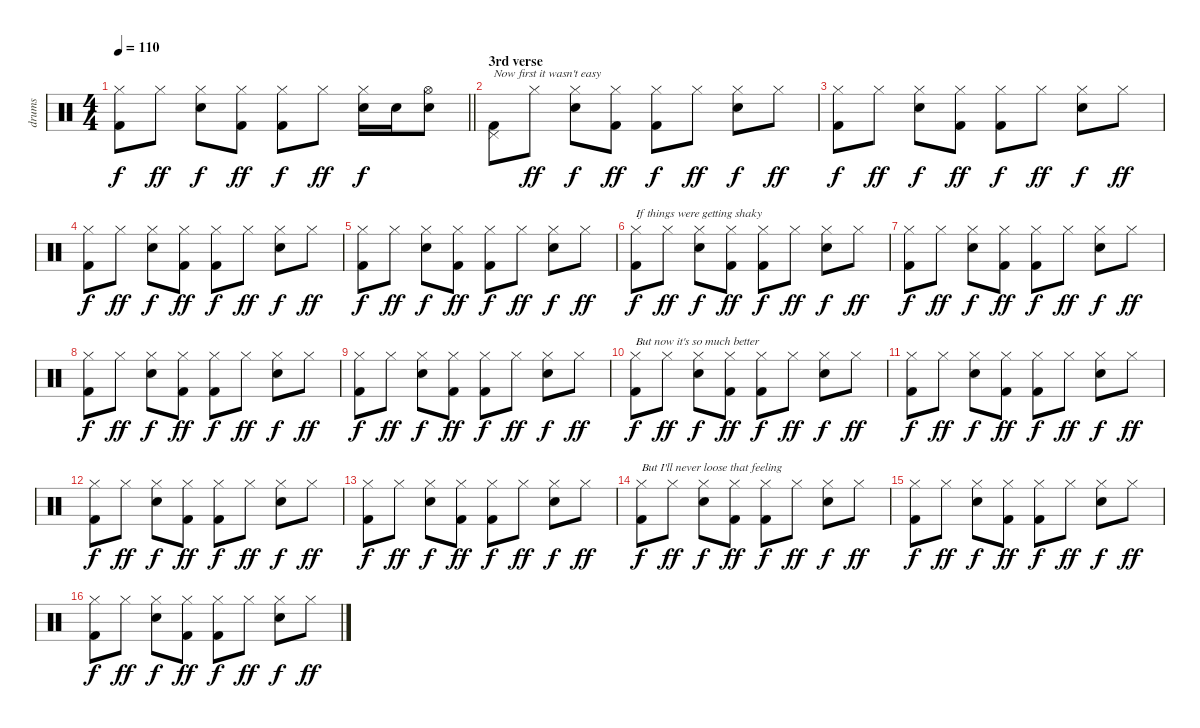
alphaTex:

\track ("drums" "drums") {instrument percussion}
\staff {score}
\articulation defaults
\ts (4 4)
\tempo 110
\clef neutral
\barLineRight lightlight
\ks aminor
("Hi-Hat (closed)" "Kick (hit) 2").8{dy f} "Hi-Hat (closed)".8{dy ff} ("Hi-Hat (closed)" "Snare (hit) 2").8{dy f} ("Hi-Hat (closed)" "Kick (hit) 2").8{dy ff} ("Hi-Hat (closed)" "Kick (hit) 2").8{dy f} "Hi-Hat (closed)".8{dy ff} ("Hi-Hat (closed)" "Snare (hit) 2").16{dy f} "Snare (hit) 2".16 ("Hi-Hat (open)" "Snare (hit) 2").8 |
\section ("" "3rd verse")
("Pedal Hi-Hat (hit)" "Kick (hit) 2").8{txt "Now first it wasn't easy"} "Hi-Hat (closed)".8{dy ff} ("Hi-Hat (closed)" "Snare (hit) 2").8{dy f} ("Hi-Hat (closed)" "Kick (hit) 2").8{dy ff} ("Hi-Hat (closed)" "Kick (hit) 2").8{dy f} "Hi-Hat (closed)".8{dy ff} ("Hi-Hat (closed)" "Snare (hit) 2").8{dy f} "Hi-Hat (closed)".8{dy ff} |
("Hi-Hat (closed)" "Kick (hit) 2").8{dy f} "Hi-Hat (closed)".8{dy ff} ("Hi-Hat (closed)" "Snare (hit) 2").8{dy f} ("Hi-Hat (closed)" "Kick (hit) 2").8{dy ff} ("Hi-Hat (closed)" "Kick (hit) 2").8{dy f} "Hi-Hat (closed)".8{dy ff} ("Hi-Hat (closed)" "Snare (hit) 2").8{dy f} "Hi-Hat (closed)".8{dy ff} |
("Hi-Hat (closed)" "Kick (hit) 2").8{dy f} "Hi-Hat (closed)".8{dy ff} ("Hi-Hat (closed)" "Snare (hit) 2").8{dy f} ("Hi-Hat (closed)" "Kick (hit) 2").8{dy ff} ("Hi-Hat (closed)" "Kick (hit) 2").8{dy f} "Hi-Hat (closed)".8{dy ff} ("Hi-Hat (closed)" "Snare (hit) 2").8{dy f} "Hi-Hat (closed)".8{dy ff} |
("Hi-Hat (closed)" "Kick (hit) 2").8{dy f} "Hi-Hat (closed)".8{dy ff} ("Hi-Hat (closed)" "Snare (hit) 2").8{dy f} ("Hi-Hat (closed)" "Kick (hit) 2").8{dy ff} ("Hi-Hat (closed)" "Kick (hit) 2").8{dy f} "Hi-Hat (closed)".8{dy ff} ("Hi-Hat (closed)" "Snare (hit) 2").8{dy f} "Hi-Hat (closed)".8{dy ff} |
("Hi-Hat (closed)" "Kick (hit) 2").8{txt "If things were getting shaky" dy f} "Hi-Hat (closed)".8{dy ff} ("Hi-Hat (closed)" "Snare (hit) 2").8{dy f} ("Hi-Hat (closed)" "Kick (hit) 2").8{dy ff} ("Hi-Hat (closed)" "Kick (hit) 2").8{dy f} "Hi-Hat (closed)".8{dy ff} ("Hi-Hat (closed)" "Snare (hit) 2").8{dy f} "Hi-Hat (closed)".8{dy ff} |
("Hi-Hat (closed)" "Kick (hit) 2").8{dy f} "Hi-Hat (closed)".8{dy ff} ("Hi-Hat (closed)" "Snare (hit) 2").8{dy f} ("Hi-Hat (closed)" "Kick (hit) 2").8{dy ff} ("Hi-Hat (closed)" "Kick (hit) 2").8{dy f} "Hi-Hat (closed)".8{dy ff} ("Hi-Hat (closed)" "Snare (hit) 2").8{dy f} "Hi-Hat (closed)".8{dy ff} |
("Hi-Hat (closed)" "Kick (hit) 2").8{dy f} "Hi-Hat (closed)".8{dy ff} ("Hi-Hat (closed)" "Snare (hit) 2").8{dy f} ("Hi-Hat (closed)" "Kick (hit) 2").8{dy ff} ("Hi-Hat (closed)" "Kick (hit) 2").8{dy f} "Hi-Hat (closed)".8{dy ff} ("Hi-Hat (closed)" "Snare (hit) 2").8{dy f} "Hi-Hat (closed)".8{dy ff} |
("Hi-Hat (closed)" "Kick (hit) 2").8{dy f} "Hi-Hat (closed)".8{dy ff} ("Hi-Hat (closed)" "Snare (hit) 2").8{dy f} ("Hi-Hat (closed)" "Kick (hit) 2").8{dy ff} ("Hi-Hat (closed)" "Kick (hit) 2").8{dy f} "Hi-Hat (closed)".8{dy ff} ("Hi-Hat (closed)" "Snare (hit) 2").8{dy f} "Hi-Hat (closed)".8{dy ff} |
("Hi-Hat (closed)" "Kick (hit) 2").8{txt "But now it's so much better" dy f} "Hi-Hat (closed)".8{dy ff} ("Hi-Hat (closed)" "Snare (hit) 2").8{dy f} ("Hi-Hat (closed)" "Kick (hit) 2").8{dy ff} ("Hi-Hat (closed)" "Kick (hit) 2").8{dy f} "Hi-Hat (closed)".8{dy ff} ("Hi-Hat (closed)" "Snare (hit) 2").8{dy f} "Hi-Hat (closed)".8{dy ff} |
("Hi-Hat (closed)" "Kick (hit) 2").8{dy f} "Hi-Hat (closed)".8{dy ff} ("Hi-Hat (closed)" "Snare (hit) 2").8{dy f} ("Hi-Hat (closed)" "Kick (hit) 2").8{dy ff} ("Hi-Hat (closed)" "Kick (hit) 2").8{dy f} "Hi-Hat (closed)".8{dy ff} ("Hi-Hat (closed)" "Snare (hit) 2").8{dy f} "Hi-Hat (closed)".8{dy ff} |
("Hi-Hat (closed)" "Kick (hit) 2").8{dy f} "Hi-Hat (closed)".8{dy ff} ("Hi-Hat (closed)" "Snare (hit) 2").8{dy f} ("Hi-Hat (closed)" "Kick (hit) 2").8{dy ff} ("Hi-Hat (closed)" "Kick (hit) 2").8{dy f} "Hi-Hat (closed)".8{dy ff} ("Hi-Hat (closed)" "Snare (hit) 2").8{dy f} "Hi-Hat (closed)".8{dy ff} |
("Hi-Hat (closed)" "Kick (hit) 2").8{dy f} "Hi-Hat (closed)".8{dy ff} ("Hi-Hat (closed)" "Snare (hit) 2").8{dy f} ("Hi-Hat (closed)" "Kick (hit) 2").8{dy ff} ("Hi-Hat (closed)" "Kick (hit) 2").8{dy f} "Hi-Hat (closed)".8{dy ff} ("Hi-Hat (closed)" "Snare (hit) 2").8{dy f} "Hi-Hat (closed)".8{dy ff} |
("Hi-Hat (closed)" "Kick (hit) 2").8{txt "But I'll never loose that feeling" dy f} "Hi-Hat (closed)".8{dy ff} ("Hi-Hat (closed)" "Snare (hit) 2").8{dy f} ("Hi-Hat (closed)" "Kick (hit) 2").8{dy ff} ("Hi-Hat (closed)" "Kick (hit) 2").8{dy f} "Hi-Hat (closed)".8{dy ff} ("Hi-Hat (closed)" "Snare (hit) 2").8{dy f} "Hi-Hat (closed)".8{dy ff} |
("Hi-Hat (closed)" "Kick (hit) 2").8{dy f} "Hi-Hat (closed)".8{dy ff} ("Hi-Hat (closed)" "Snare (hit) 2").8{dy f} ("Hi-Hat (closed)" "Kick (hit) 2").8{dy ff} ("Hi-Hat (closed)" "Kick (hit) 2").8{dy f} "Hi-Hat (closed)".8{dy ff} ("Hi-Hat (closed)" "Snare (hit) 2").8{dy f} "Hi-Hat (closed)".8{dy ff} |
("Hi-Hat (closed)" "Kick (hit) 2").8{dy f} "Hi-Hat (closed)".8{dy ff} ("Hi-Hat (closed)" "Snare (hit) 2").8{dy f} ("Hi-Hat (closed)" "Kick (hit) 2").8{dy ff} ("Hi-Hat (closed)" "Kick (hit) 2").8{dy f} "Hi-Hat (closed)".8{dy ff} ("Hi-Hat (closed)" "Snare (hit) 2").8{dy f} "Hi-Hat (closed)".8{dy ff}
